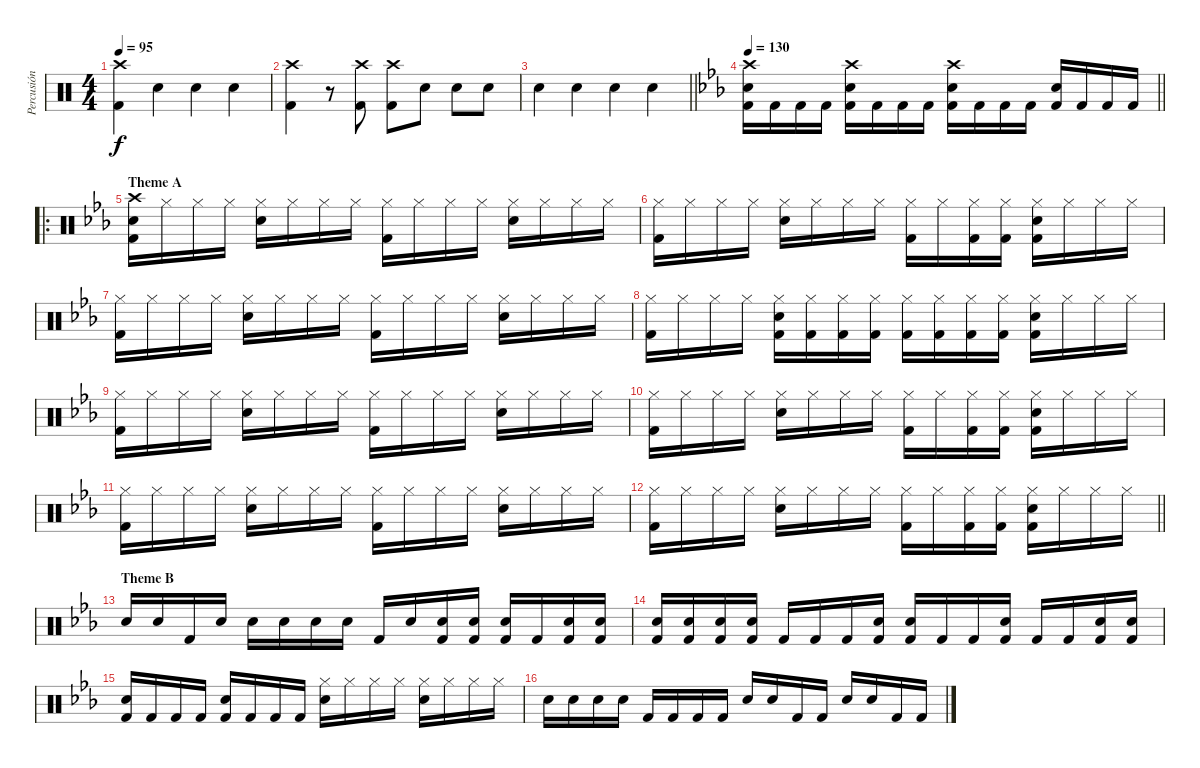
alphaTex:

\track ("Percusión" "Percusión") {instrument percussion}
\staff {score}
\articulation defaults
\ts (4 4)
\tempo 95
\clef neutral
\ks c
("Crash high (hit)" "Kick (hit) 2").4{dy f} "Snare (hit)".4 "Snare (hit)".4 "Snare (hit)".4 |
("Crash high (hit)" "Kick (hit) 2").4 r.8 ("Crash high (hit)" "Kick (hit) 2").8 ("Crash high (hit)" "Kick (hit) 2").8 "Snare (hit)".8 "Snare (hit)".8 "Snare (hit)".8 |
\barLineRight lightlight "Snare (hit)".4 "Snare (hit)".4 "Snare (hit)".4 "Snare (hit)".4
|
\tempo 130
\barLineRight lightlight
\ks eb
("Crash high (hit)" "Snare (hit) 2" "Kick (hit) 2").16 "Kick (hit) 2".16 "Kick (hit) 2".16 "Kick (hit) 2".16 ("Crash high (hit)" "Snare (hit) 2" "Kick (hit) 2").16 "Kick (hit) 2".16 "Kick (hit) 2".16 "Kick (hit) 2".16 ("Crash high (hit)" "Snare (hit) 2" "Kick (hit) 2").16 "Kick (hit) 2".16 "Kick (hit) 2".16 "Kick (hit) 2".16 ("Snare (hit) 2" "Kick (hit) 2").16 "Kick (hit) 2".16 "Kick (hit) 2".16 "Kick (hit) 2".16 |
\ro
\section ("" "Theme A")
("Crash high (hit)" "Kick (hit) 2" "Snare (hit) 2").16 "Hi-Hat (closed)".16 "Hi-Hat (closed)".16 "Hi-Hat (closed)".16 ("Hi-Hat (closed)" "Snare (hit) 2").16 "Hi-Hat (closed)".16 "Hi-Hat (closed)".16 "Hi-Hat (closed)".16 ("Kick (hit) 2" "Hi-Hat (closed)").16 "Hi-Hat (closed)".16 "Hi-Hat (closed)".16 "Hi-Hat (closed)".16 ("Hi-Hat (closed)" "Snare (hit) 2").16 "Hi-Hat (closed)".16 "Hi-Hat (closed)".16 "Hi-Hat (closed)".16 |
("Kick (hit) 2" "Hi-Hat (closed)").16 "Hi-Hat (closed)".16 "Hi-Hat (closed)".16 "Hi-Hat (closed)".16 ("Hi-Hat (closed)" "Snare (hit) 2").16 "Hi-Hat (closed)".16 "Hi-Hat (closed)".16 "Hi-Hat (closed)".16 ("Kick (hit) 2" "Hi-Hat (closed)").16 "Hi-Hat (closed)".16 ("Kick (hit) 2" "Hi-Hat (closed)").16 ("Kick (hit) 2" "Hi-Hat (closed)").16 ("Kick (hit) 2" "Hi-Hat (closed)" "Snare (hit) 2").16 "Hi-Hat (closed)".16 "Hi-Hat (closed)".16 "Hi-Hat (closed)".16 |
("Kick (hit) 2" "Hi-Hat (closed)").16 "Hi-Hat (closed)".16 "Hi-Hat (closed)".16 "Hi-Hat (closed)".16 ("Hi-Hat (closed)" "Snare (hit) 2").16 "Hi-Hat (closed)".16 "Hi-Hat (closed)".16 "Hi-Hat (closed)".16 ("Kick (hit) 2" "Hi-Hat (closed)").16 "Hi-Hat (closed)".16 "Hi-Hat (closed)".16 "Hi-Hat (closed)".16 ("Hi-Hat (closed)" "Snare (hit) 2").16 "Hi-Hat (closed)".16 "Hi-Hat (closed)".16 "Hi-Hat (closed)".16 |
("Kick (hit) 2" "Hi-Hat (closed)").16 "Hi-Hat (closed)".16 "Hi-Hat (closed)".16 "Hi-Hat (closed)".16 ("Kick (hit) 2" "Hi-Hat (closed)" "Snare (hit) 2").16 ("Kick (hit) 2" "Hi-Hat (closed)").16 ("Kick (hit) 2" "Hi-Hat (closed)").16 ("Kick (hit) 2" "Hi-Hat (closed)").16 ("Kick (hit) 2" "Hi-Hat (closed)").16 ("Kick (hit) 2" "Hi-Hat (closed)").16 ("Kick (hit) 2" "Hi-Hat (closed)").16 ("Kick (hit) 2" "Hi-Hat (closed)").16 ("Kick (hit) 2" "Hi-Hat (closed)" "Snare (hit) 2").16 "Hi-Hat (closed)".16 "Hi-Hat (closed)".16 "Hi-Hat (closed)".16 |
("Kick (hit) 2" "Hi-Hat (closed)").16 "Hi-Hat (closed)".16 "Hi-Hat (closed)".16 "Hi-Hat (closed)".16 ("Hi-Hat (closed)" "Snare (hit) 2").16 "Hi-Hat (closed)".16 "Hi-Hat (closed)".16 "Hi-Hat (closed)".16 ("Kick (hit) 2" "Hi-Hat (closed)").16 "Hi-Hat (closed)".16 "Hi-Hat (closed)".16 "Hi-Hat (closed)".16 ("Hi-Hat (closed)" "Snare (hit) 2").16 "Hi-Hat (closed)".16 "Hi-Hat (closed)".16 "Hi-Hat (closed)".16 |
("Kick (hit) 2" "Hi-Hat (closed)").16 "Hi-Hat (closed)".16 "Hi-Hat (closed)".16 "Hi-Hat (closed)".16 ("Hi-Hat (closed)" "Snare (hit) 2").16 "Hi-Hat (closed)".16 "Hi-Hat (closed)".16 "Hi-Hat (closed)".16 ("Kick (hit) 2" "Hi-Hat (closed)").16 "Hi-Hat (closed)".16 ("Kick (hit) 2" "Hi-Hat (closed)").16 ("Kick (hit) 2" "Hi-Hat (closed)").16 ("Kick (hit) 2" "Hi-Hat (closed)" "Snare (hit) 2").16 "Hi-Hat (closed)".16 "Hi-Hat (closed)".16 "Hi-Hat (closed)".16 |
("Kick (hit) 2" "Hi-Hat (closed)").16 "Hi-Hat (closed)".16 "Hi-Hat (closed)".16 "Hi-Hat (closed)".16 ("Hi-Hat (closed)" "Snare (hit) 2").16 "Hi-Hat (closed)".16 "Hi-Hat (closed)".16 "Hi-Hat (closed)".16 ("Kick (hit) 2" "Hi-Hat (closed)").16 "Hi-Hat (closed)".16 "Hi-Hat (closed)".16 "Hi-Hat (closed)".16 ("Hi-Hat (closed)" "Snare (hit) 2").16 "Hi-Hat (closed)".16 "Hi-Hat (closed)".16 "Hi-Hat (closed)".16 |
\barLineRight lightlight
("Kick (hit) 2" "Hi-Hat (closed)").16 "Hi-Hat (closed)".16 "Hi-Hat (closed)".16 "Hi-Hat (closed)".16 ("Hi-Hat (closed)" "Snare (hit) 2").16 "Hi-Hat (closed)".16 "Hi-Hat (closed)".16 "Hi-Hat (closed)".16 ("Kick (hit) 2" "Hi-Hat (closed)").16 "Hi-Hat (closed)".16 ("Kick (hit) 2" "Hi-Hat (closed)").16 ("Kick (hit) 2" "Hi-Hat (closed)").16 ("Kick (hit) 2" "Hi-Hat (closed)" "Snare (hit) 2").16 "Hi-Hat (closed)".16 "Hi-Hat (closed)".16 "Hi-Hat (closed)".16 |
\section ("" "Theme B")
"Snare (hit) 2".16 "Snare (hit) 2".16 "Kick (hit) 2".16 "Snare (hit) 2".16 "Snare (hit) 2".16 "Snare (hit)".16 "Snare (hit) 2".16 "Snare (hit) 2".16 "Kick (hit) 2".16 "Snare (hit) 2".16 ("Snare (hit) 2" "Kick (hit) 2").16 ("Snare (hit) 2" "Kick (hit) 2").16 ("Snare (hit) 2" "Kick (hit) 2").16 "Kick (hit) 2".16 ("Snare (hit) 2" "Kick (hit) 2").16 ("Snare (hit) 2" "Kick (hit) 2").16 |
("Snare (hit) 2" "Kick (hit) 2").16 ("Snare (hit) 2" "Kick (hit) 2").16 ("Snare (hit) 2" "Kick (hit) 2").16 ("Snare (hit) 2" "Kick (hit) 2").16 "Kick (hit) 2".16 "Kick (hit) 2".16 "Kick (hit) 2".16 ("Snare (hit) 2" "Kick (hit) 2").16 ("Snare (hit) 2" "Kick (hit) 2").16 "Kick (hit) 2".16 "Kick (hit) 2".16 ("Snare (hit) 2" "Kick (hit) 2").16 "Kick (hit) 2".16 "Kick (hit) 2".16 ("Snare (hit) 2" "Kick (hit) 2").16 ("Snare (hit) 2" "Kick (hit) 2").16 |
("Snare (hit) 2" "Kick (hit) 2").16 "Kick (hit) 2".16 "Kick (hit) 2".16 "Kick (hit) 2".16 ("Snare (hit) 2" "Kick (hit) 2").16 "Kick (hit) 2".16 "Kick (hit) 2".16 "Kick (hit) 2".16 ("Hi-Hat (closed)" "Snare (hit) 2").16 "Hi-Hat (closed)".16 "Hi-Hat (closed)".16 "Hi-Hat (closed)".16 ("Hi-Hat (closed)" "Snare (hit) 2").16 "Hi-Hat (closed)".16 "Hi-Hat (closed)".16 "Hi-Hat (closed)".16 |
"Snare (hit) 2".16 "Snare (hit) 2".16 "Snare (hit) 2".16 "Snare (hit) 2".16 "Kick (hit) 2".16 "Kick (hit) 2".16 "Kick (hit) 2".16 "Kick (hit) 2".16 "Snare (hit) 2".16 "Snare (hit) 2".16 "Kick (hit) 2".16 "Kick (hit) 2".16 "Snare (hit) 2".16 "Snare (hit) 2".16 "Kick (hit) 2".16 "Kick (hit) 2".16
